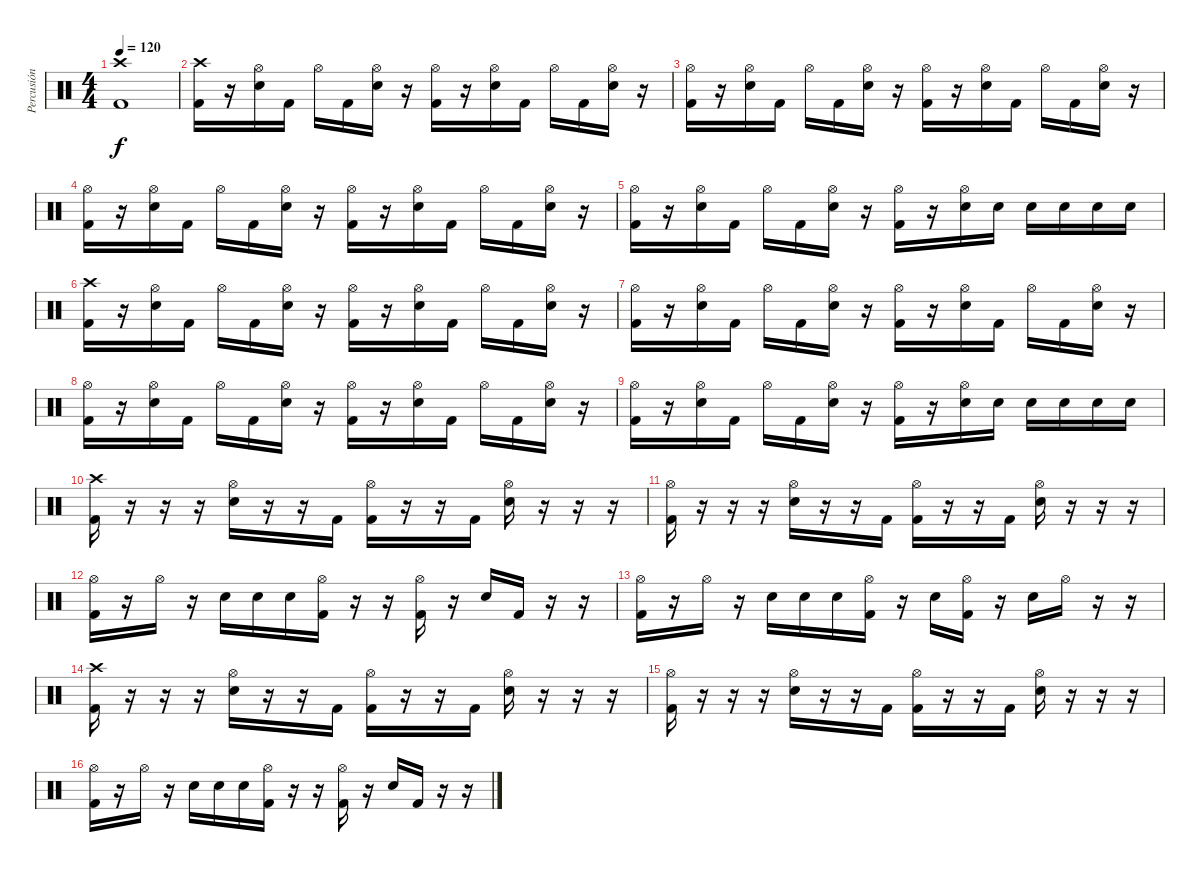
\track ("Percusión" "Percusión") {instrument percussion}
\staff {score}
\articulation defaults
\ts (4 4)
\tempo 120
\clef neutral
\ks c
("Crash high (hit)" "Kick (hit) 2").1{dy f} |
("Crash high (hit)" "Kick (hit) 2").16 r.16 ("Hi-Hat (open)" "Electric Snare (hit)").16 "Kick (hit) 2".16 "Hi-Hat (open)".16 "Kick (hit) 2".16 ("Hi-Hat (open)" "Electric Snare (hit)").16 r.16 ("Hi-Hat (open)" "Kick (hit) 2").16 r.16 ("Hi-Hat (open)" "Electric Snare (hit)").16 "Kick (hit) 2".16 "Hi-Hat (open)".16 "Kick (hit) 2".16 ("Hi-Hat (open)" "Electric Snare (hit)").16 r.16 |
("Hi-Hat (open)" "Kick (hit) 2").16 r.16 ("Hi-Hat (open)" "Electric Snare (hit)").16 "Kick (hit) 2".16 "Hi-Hat (open)".16 "Kick (hit) 2".16 ("Hi-Hat (open)" "Electric Snare (hit)").16 r.16 ("Hi-Hat (open)" "Kick (hit) 2").16 r.16 ("Hi-Hat (open)" "Electric Snare (hit)").16 "Kick (hit) 2".16 "Hi-Hat (open)".16 "Kick (hit) 2".16 ("Hi-Hat (open)" "Electric Snare (hit)").16 r.16 |
("Hi-Hat (open)" "Kick (hit) 2").16 r.16 ("Hi-Hat (open)" "Electric Snare (hit)").16 "Kick (hit) 2".16 "Hi-Hat (open)".16 "Kick (hit) 2".16 ("Hi-Hat (open)" "Electric Snare (hit)").16 r.16 ("Hi-Hat (open)" "Kick (hit) 2").16 r.16 ("Hi-Hat (open)" "Electric Snare (hit)").16 "Kick (hit) 2".16 "Hi-Hat (open)".16 "Kick (hit) 2".16 ("Hi-Hat (open)" "Electric Snare (hit)").16 r.16 |
("Hi-Hat (open)" "Kick (hit) 2").16 r.16 ("Hi-Hat (open)" "Electric Snare (hit)").16 "Kick (hit) 2".16 "Hi-Hat (open)".16 "Kick (hit) 2".16 ("Hi-Hat (open)" "Electric Snare (hit)").16 r.16 ("Hi-Hat (open)" "Kick (hit) 2").16 r.16 ("Hi-Hat (open)" "Electric Snare (hit)").16 "Electric Snare (hit)".16 "Electric Snare (hit)".16 "Electric Snare (hit)".16 "Electric Snare (hit)".16 "Electric Snare (hit)".16 |
("Crash high (hit)" "Kick (hit) 2").16 r.16 ("Hi-Hat (open)" "Electric Snare (hit)").16 "Kick (hit) 2".16 "Hi-Hat (open)".16 "Kick (hit) 2".16 ("Hi-Hat (open)" "Electric Snare (hit)").16 r.16 ("Hi-Hat (open)" "Kick (hit) 2").16 r.16 ("Hi-Hat (open)" "Electric Snare (hit)").16 "Kick (hit) 2".16 "Hi-Hat (open)".16 "Kick (hit) 2".16 ("Hi-Hat (open)" "Electric Snare (hit)").16 r.16 |
("Hi-Hat (open)" "Kick (hit) 2").16 r.16 ("Hi-Hat (open)" "Electric Snare (hit)").16 "Kick (hit) 2".16 "Hi-Hat (open)".16 "Kick (hit) 2".16 ("Hi-Hat (open)" "Electric Snare (hit)").16 r.16 ("Hi-Hat (open)" "Kick (hit) 2").16 r.16 ("Hi-Hat (open)" "Electric Snare (hit)").16 "Kick (hit) 2".16 "Hi-Hat (open)".16 "Kick (hit) 2".16 ("Hi-Hat (open)" "Electric Snare (hit)").16 r.16 |
("Hi-Hat (open)" "Kick (hit) 2").16 r.16 ("Hi-Hat (open)" "Electric Snare (hit)").16 "Kick (hit) 2".16 "Hi-Hat (open)".16 "Kick (hit) 2".16 ("Hi-Hat (open)" "Electric Snare (hit)").16 r.16 ("Hi-Hat (open)" "Kick (hit) 2").16 r.16 ("Hi-Hat (open)" "Electric Snare (hit)").16 "Kick (hit) 2".16 "Hi-Hat (open)".16 "Kick (hit) 2".16 ("Hi-Hat (open)" "Electric Snare (hit)").16 r.16 |
("Hi-Hat (open)" "Kick (hit) 2").16 r.16 ("Hi-Hat (open)" "Electric Snare (hit)").16 "Kick (hit) 2".16 "Hi-Hat (open)".16 "Kick (hit) 2".16 ("Hi-Hat (open)" "Electric Snare (hit)").16 r.16 ("Hi-Hat (open)" "Kick (hit) 2").16 r.16 ("Hi-Hat (open)" "Electric Snare (hit)").16 "Electric Snare (hit)".16 "Electric Snare (hit)".16 "Electric Snare (hit)".16 "Electric Snare (hit)".16 "Electric Snare (hit)".16 |
("Crash high (hit)" "Kick (hit) 2").16 r.16 r.16 r.16 ("Hi-Hat (open)" "Electric Snare (hit)").16 r.16 r.16 "Kick (hit) 2".16 ("Hi-Hat (open)" "Kick (hit) 2").16 r.16 r.16 "Kick (hit) 2".16 ("Hi-Hat (open)" "Electric Snare (hit)").16 r.16 r.16 r.16 |
("Hi-Hat (open)" "Kick (hit) 2").16 r.16 r.16 r.16 ("Hi-Hat (open)" "Electric Snare (hit)").16 r.16 r.16 "Kick (hit) 2".16 ("Hi-Hat (open)" "Kick (hit) 2").16 r.16 r.16 "Kick (hit) 2".16 ("Hi-Hat (open)" "Electric Snare (hit)").16 r.16 r.16 r.16 |
("Hi-Hat (open)" "Kick (hit) 2").16 r.16 "Hi-Hat (open)".16 r.16 "Electric Snare (hit)".16 "Electric Snare (hit)".16 "Electric Snare (hit)".16 ("Hi-Hat (open)" "Kick (hit) 2").16 r.16 r.16 ("Hi-Hat (open)" "Kick (hit) 2").16 r.16 "Electric Snare (hit)".16 "Kick (hit) 2".16 r.16 r.16 |
("Hi-Hat (open)" "Kick (hit) 2").16 r.16 "Hi-Hat (open)".16 r.16 "Electric Snare (hit)".16 "Electric Snare (hit)".16 "Electric Snare (hit)".16 ("Hi-Hat (open)" "Kick (hit) 2").16 r.16 "Electric Snare (hit)".16 ("Hi-Hat (open)" "Kick (hit) 2").16 r.16 "Electric Snare (hit)".16 "Hi-Hat (open)".16 r.16 r.16 |
("Crash high (hit)" "Kick (hit) 2").16 r.16 r.16 r.16 ("Hi-Hat (open)" "Electric Snare (hit)").16 r.16 r.16 "Kick (hit) 2".16 ("Hi-Hat (open)" "Kick (hit) 2").16 r.16 r.16 "Kick (hit) 2".16 ("Hi-Hat (open)" "Electric Snare (hit)").16 r.16 r.16 r.16 |
("Hi-Hat (open)" "Kick (hit) 2").16 r.16 r.16 r.16 ("Hi-Hat (open)" "Electric Snare (hit)").16 r.16 r.16 "Kick (hit) 2".16 ("Hi-Hat (open)" "Kick (hit) 2").16 r.16 r.16 "Kick (hit) 2".16 ("Hi-Hat (open)" "Electric Snare (hit)").16 r.16 r.16 r.16 |
("Hi-Hat (open)" "Kick (hit) 2").16 r.16 "Hi-Hat (open)".16 r.16 "Electric Snare (hit)".16 "Electric Snare (hit)".16 "Electric Snare (hit)".16 ("Hi-Hat (open)" "Kick (hit) 2").16 r.16 r.16 ("Hi-Hat (open)" "Kick (hit) 2").16 r.16 "Electric Snare (hit)".16 "Kick (hit) 2".16 r.16 r.16
